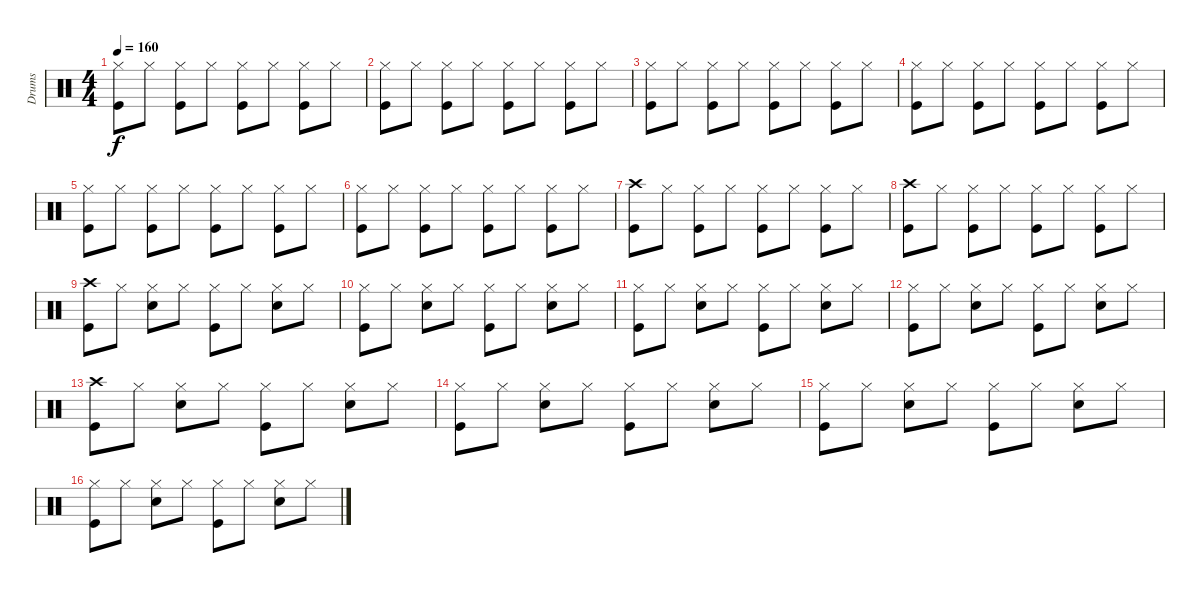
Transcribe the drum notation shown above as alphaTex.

\track ("Drums" "Drums") {instrument percussion}
\staff {score}
\articulation defaults
\ts (4 4)
\tempo 160
\clef neutral
\ks c
("Kick (hit)" "Hi-Hat (closed)").8{dy f} "Hi-Hat (closed)".8 ("Hi-Hat (closed)" "Kick (hit)").8 "Hi-Hat (closed)".8 ("Hi-Hat (closed)" "Kick (hit)").8 "Hi-Hat (closed)".8 ("Hi-Hat (closed)" "Kick (hit)").8 "Hi-Hat (closed)".8 |
("Kick (hit)" "Hi-Hat (closed)").8 "Hi-Hat (closed)".8 ("Hi-Hat (closed)" "Kick (hit)").8 "Hi-Hat (closed)".8 ("Hi-Hat (closed)" "Kick (hit)").8 "Hi-Hat (closed)".8 ("Hi-Hat (closed)" "Kick (hit)").8 "Hi-Hat (closed)".8 |
("Kick (hit)" "Hi-Hat (closed)").8 "Hi-Hat (closed)".8 ("Hi-Hat (closed)" "Kick (hit)").8 "Hi-Hat (closed)".8 ("Hi-Hat (closed)" "Kick (hit)").8 "Hi-Hat (closed)".8 ("Hi-Hat (closed)" "Kick (hit)").8 "Hi-Hat (closed)".8 |
("Kick (hit)" "Hi-Hat (closed)").8 "Hi-Hat (closed)".8 ("Hi-Hat (closed)" "Kick (hit)").8 "Hi-Hat (closed)".8 ("Hi-Hat (closed)" "Kick (hit)").8 "Hi-Hat (closed)".8 ("Hi-Hat (closed)" "Kick (hit)").8 "Hi-Hat (closed)".8 |
("Kick (hit)" "Hi-Hat (closed)").8 "Hi-Hat (closed)".8 ("Hi-Hat (closed)" "Kick (hit)").8 "Hi-Hat (closed)".8 ("Hi-Hat (closed)" "Kick (hit)").8 "Hi-Hat (closed)".8 ("Hi-Hat (closed)" "Kick (hit)").8 "Hi-Hat (closed)".8 |
("Kick (hit)" "Hi-Hat (closed)").8 "Hi-Hat (closed)".8 ("Hi-Hat (closed)" "Kick (hit)").8 "Hi-Hat (closed)".8 ("Hi-Hat (closed)" "Kick (hit)").8 "Hi-Hat (closed)".8 ("Hi-Hat (closed)" "Kick (hit)").8 "Hi-Hat (closed)".8 |
("Crash high (hit)" "Kick (hit)").8 "Hi-Hat (closed)".8 ("Hi-Hat (closed)" "Kick (hit)").8 "Hi-Hat (closed)".8 ("Hi-Hat (closed)" "Kick (hit)").8 "Hi-Hat (closed)".8 ("Hi-Hat (closed)" "Kick (hit)").8 "Hi-Hat (closed)".8 |
("Crash high (hit)" "Kick (hit)").8 "Hi-Hat (closed)".8 ("Hi-Hat (closed)" "Kick (hit)").8 "Hi-Hat (closed)".8 ("Hi-Hat (closed)" "Kick (hit)").8 "Hi-Hat (closed)".8 ("Hi-Hat (closed)" "Kick (hit)").8 "Hi-Hat (closed)".8 |
("Kick (hit)" "Crash high (hit)").8 "Hi-Hat (closed)".8 ("Hi-Hat (closed)" "Snare (hit) 2").8 "Hi-Hat (closed)".8 ("Kick (hit)" "Hi-Hat (closed)").8 "Hi-Hat (closed)".8 ("Hi-Hat (closed)" "Snare (hit) 2").8 "Hi-Hat (closed)".8 |
("Kick (hit)" "Hi-Hat (closed)").8 "Hi-Hat (closed)".8 ("Hi-Hat (closed)" "Snare (hit) 2").8 "Hi-Hat (closed)".8 ("Kick (hit)" "Hi-Hat (closed)").8 "Hi-Hat (closed)".8 ("Hi-Hat (closed)" "Snare (hit) 2").8 "Hi-Hat (closed)".8 |
("Kick (hit)" "Hi-Hat (closed)").8 "Hi-Hat (closed)".8 ("Hi-Hat (closed)" "Snare (hit) 2").8 "Hi-Hat (closed)".8 ("Kick (hit)" "Hi-Hat (closed)").8 "Hi-Hat (closed)".8 ("Hi-Hat (closed)" "Snare (hit) 2").8 "Hi-Hat (closed)".8 |
("Kick (hit)" "Hi-Hat (closed)").8 "Hi-Hat (closed)".8 ("Hi-Hat (closed)" "Snare (hit) 2").8 "Hi-Hat (closed)".8 ("Kick (hit)" "Hi-Hat (closed)").8 "Hi-Hat (closed)".8 ("Hi-Hat (closed)" "Snare (hit) 2").8 "Hi-Hat (closed)".8 |
("Kick (hit)" "Crash high (hit)").8 "Hi-Hat (closed)".8 ("Hi-Hat (closed)" "Snare (hit) 2").8 "Hi-Hat (closed)".8 ("Kick (hit)" "Hi-Hat (closed)").8 "Hi-Hat (closed)".8 ("Hi-Hat (closed)" "Snare (hit) 2").8 "Hi-Hat (closed)".8 |
("Kick (hit)" "Hi-Hat (closed)").8 "Hi-Hat (closed)".8 ("Hi-Hat (closed)" "Snare (hit) 2").8 "Hi-Hat (closed)".8 ("Kick (hit)" "Hi-Hat (closed)").8 "Hi-Hat (closed)".8 ("Hi-Hat (closed)" "Snare (hit) 2").8 "Hi-Hat (closed)".8 |
("Kick (hit)" "Hi-Hat (closed)").8 "Hi-Hat (closed)".8 ("Hi-Hat (closed)" "Snare (hit) 2").8 "Hi-Hat (closed)".8 ("Kick (hit)" "Hi-Hat (closed)").8 "Hi-Hat (closed)".8 ("Hi-Hat (closed)" "Snare (hit) 2").8 "Hi-Hat (closed)".8 |
("Kick (hit)" "Hi-Hat (closed)").8 "Hi-Hat (closed)".8 ("Hi-Hat (closed)" "Snare (hit) 2").8 "Hi-Hat (closed)".8 ("Kick (hit)" "Hi-Hat (closed)").8 "Hi-Hat (closed)".8 ("Hi-Hat (closed)" "Snare (hit) 2").8 "Hi-Hat (closed)".8
